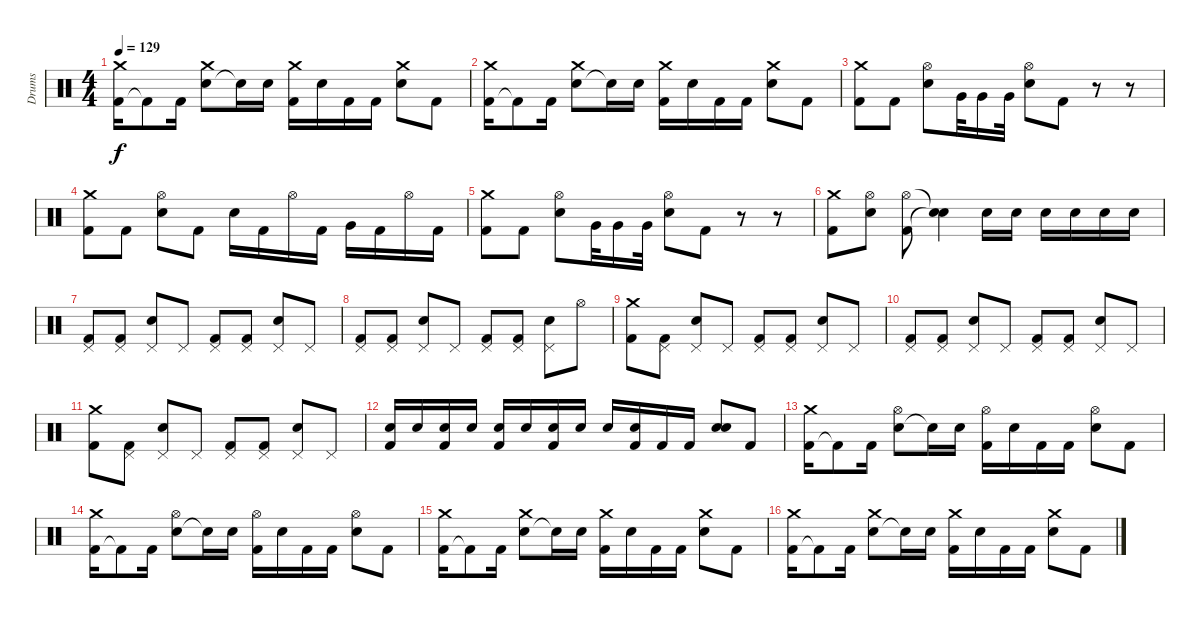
\track ("Drums" "Drums") {instrument percussion}
\staff {score}
\articulation defaults
\ts (4 4)
\tempo 129
\clef neutral
\ks c
("Kick (hit) 2" "Crash medium (hit)").16{dy f} "Kick (hit) 2"{t}.8 "Kick (hit) 2".16 ("Snare (hit) 2" "Crash medium (hit)").8 "Snare (hit)"{t}.16 "Snare (hit) 2".16 ("Kick (hit) 2" "Crash medium (hit)").16 "Snare (hit) 2".16 "Kick (hit) 2".16 "Kick (hit) 2".16 ("Snare (hit) 2" "Crash medium (hit)").8 "Kick (hit) 2".8 |
("Kick (hit) 2" "Crash medium (hit)").16 "Kick (hit) 2"{t}.8 "Kick (hit) 2".16 ("Snare (hit) 2" "Crash medium (hit)").8 "Snare (hit)"{t}.16 "Snare (hit) 2".16 ("Kick (hit) 2" "Crash medium (hit)").16 "Snare (hit) 2".16 "Kick (hit) 2".16 "Kick (hit) 2".16 ("Snare (hit) 2" "Crash medium (hit)").8 "Kick (hit) 2".8 |
("Kick (hit) 2" "Crash medium (hit)").8 "Kick (hit) 2".8 ("Snare (hit) 2" "Hi-Hat (open)").8 "Very Low Tom (hit)".32 "Very Low Tom (hit)".16 "Very Low Tom (hit)".32 ("Snare (hit) 2" "Hi-Hat (open)").8 "Kick (hit) 2".8 r.8 r.8 |
("Kick (hit) 2" "Crash medium (hit)").8 "Kick (hit) 2".8 ("Snare (hit) 2" "Hi-Hat (open)").8 "Kick (hit) 2".8 "Snare (hit) 2".16 "Kick (hit) 2".16 "Hi-Hat (open)".16 "Kick (hit) 2".16 "Very Low Tom (hit)".16 "Kick (hit) 2".16 "Hi-Hat (open)".16 "Kick (hit) 2".16 |
("Kick (hit) 2" "Crash medium (hit)").8 "Kick (hit) 2".8 ("Snare (hit) 2" "Hi-Hat (open)").8 "Very Low Tom (hit)".32 "Very Low Tom (hit)".16 "Very Low Tom (hit)".32 ("Snare (hit) 2" "Hi-Hat (open)").8 "Kick (hit) 2".8 r.8 r.8 |
("Kick (hit) 2" "Crash medium (hit)").8 ("Snare (hit) 2" "Hi-Hat (open)").8 ("Kick (hit) 2" "Hi-Hat (open)").8 ("Snare (hit)"{t} "Snare (hit)"{t}).4 "Snare (hit) 2".16 "Snare (hit) 2".16 "Snare (hit) 2".16 "Snare (hit) 2".16 "Snare (hit) 2".16 "Snare (hit) 2".16 |
("Kick (hit) 2" "Pedal Hi-Hat (hit)").8 ("Kick (hit) 2" "Pedal Hi-Hat (hit)").8 ("Snare (hit) 2" "Pedal Hi-Hat (hit)").8 "Pedal Hi-Hat (hit)".8 ("Kick (hit) 2" "Pedal Hi-Hat (hit)").8 ("Kick (hit) 2" "Pedal Hi-Hat (hit)").8 ("Snare (hit) 2" "Pedal Hi-Hat (hit)").8 "Pedal Hi-Hat (hit)".8 |
("Kick (hit) 2" "Pedal Hi-Hat (hit)").8 ("Kick (hit) 2" "Pedal Hi-Hat (hit)").8 ("Snare (hit) 2" "Pedal Hi-Hat (hit)").8 "Pedal Hi-Hat (hit)".8 ("Kick (hit) 2" "Pedal Hi-Hat (hit)").8 ("Kick (hit) 2" "Pedal Hi-Hat (hit)").8 ("Snare (hit) 2" "Pedal Hi-Hat (hit)").8 "Hi-Hat (open)".8 |
("Kick (hit) 2" "Crash medium (hit)").8 ("Kick (hit) 2" "Pedal Hi-Hat (hit)").8 ("Snare (hit) 2" "Pedal Hi-Hat (hit)").8 "Pedal Hi-Hat (hit)".8 ("Kick (hit) 2" "Pedal Hi-Hat (hit)").8 ("Kick (hit) 2" "Pedal Hi-Hat (hit)").8 ("Snare (hit) 2" "Pedal Hi-Hat (hit)").8 "Pedal Hi-Hat (hit)".8 |
("Kick (hit) 2" "Pedal Hi-Hat (hit)").8 ("Kick (hit) 2" "Pedal Hi-Hat (hit)").8 ("Snare (hit) 2" "Pedal Hi-Hat (hit)").8 "Pedal Hi-Hat (hit)".8 ("Kick (hit) 2" "Pedal Hi-Hat (hit)").8 ("Kick (hit) 2" "Pedal Hi-Hat (hit)").8 ("Snare (hit) 2" "Pedal Hi-Hat (hit)").8 "Pedal Hi-Hat (hit)".8 |
("Kick (hit) 2" "Crash medium (hit)").8 ("Kick (hit) 2" "Pedal Hi-Hat (hit)").8 ("Snare (hit) 2" "Pedal Hi-Hat (hit)").8 "Pedal Hi-Hat (hit)".8 ("Kick (hit) 2" "Pedal Hi-Hat (hit)").8 ("Kick (hit) 2" "Pedal Hi-Hat (hit)").8 ("Snare (hit) 2" "Pedal Hi-Hat (hit)").8 "Pedal Hi-Hat (hit)".8 |
("Snare (hit) 2" "Kick (hit) 2").16 "Snare (hit) 2".16 ("Snare (hit) 2" "Kick (hit) 2").16 "Snare (hit) 2".16 ("Snare (hit) 2" "Kick (hit) 2").16 "Snare (hit) 2".16 ("Snare (hit) 2" "Kick (hit) 2").16 "Snare (hit) 2".16 "Snare (hit) 2".16 ("Snare (hit) 2" "Kick (hit) 2").16 "Kick (hit) 2".16 "Kick (hit) 2".16 ("Snare (hit) 2" "Electric Snare (hit)").8 "Kick (hit) 2".8 |
("Kick (hit) 2" "Crash medium (hit)").16 "Kick (hit) 2"{t}.8 "Kick (hit) 2".16 ("Snare (hit) 2" "Hi-Hat (open)").8 "Snare (hit)"{t}.16 "Snare (hit) 2".16 ("Kick (hit) 2" "Hi-Hat (open)").16 "Snare (hit) 2".16 "Kick (hit) 2".16 "Kick (hit) 2".16 ("Snare (hit) 2" "Hi-Hat (open)").8 "Kick (hit) 2".8 |
("Kick (hit) 2" "Crash medium (hit)").16 "Kick (hit) 2"{t}.8 "Kick (hit) 2".16 ("Snare (hit) 2" "Hi-Hat (open)").8 "Snare (hit)"{t}.16 "Snare (hit) 2".16 ("Kick (hit) 2" "Hi-Hat (open)").16 "Snare (hit) 2".16 "Kick (hit) 2".16 "Kick (hit) 2".16 ("Snare (hit) 2" "Hi-Hat (open)").8 "Kick (hit) 2".8 |
("Kick (hit) 2" "Crash medium (hit)").16 "Kick (hit) 2"{t}.8 "Kick (hit) 2".16 ("Snare (hit) 2" "Crash medium (hit)").8 "Snare (hit)"{t}.16 "Snare (hit) 2".16 ("Kick (hit) 2" "Crash medium (hit)").16 "Snare (hit) 2".16 "Kick (hit) 2".16 "Kick (hit) 2".16 ("Snare (hit) 2" "Crash medium (hit)").8 "Kick (hit) 2".8 |
("Kick (hit) 2" "Crash medium (hit)").16 "Kick (hit) 2"{t}.8 "Kick (hit) 2".16 ("Snare (hit) 2" "Crash medium (hit)").8 "Snare (hit)"{t}.16 "Snare (hit) 2".16 ("Kick (hit) 2" "Crash medium (hit)").16 "Snare (hit) 2".16 "Kick (hit) 2".16 "Kick (hit) 2".16 ("Snare (hit) 2" "Crash medium (hit)").8 "Kick (hit) 2".8
